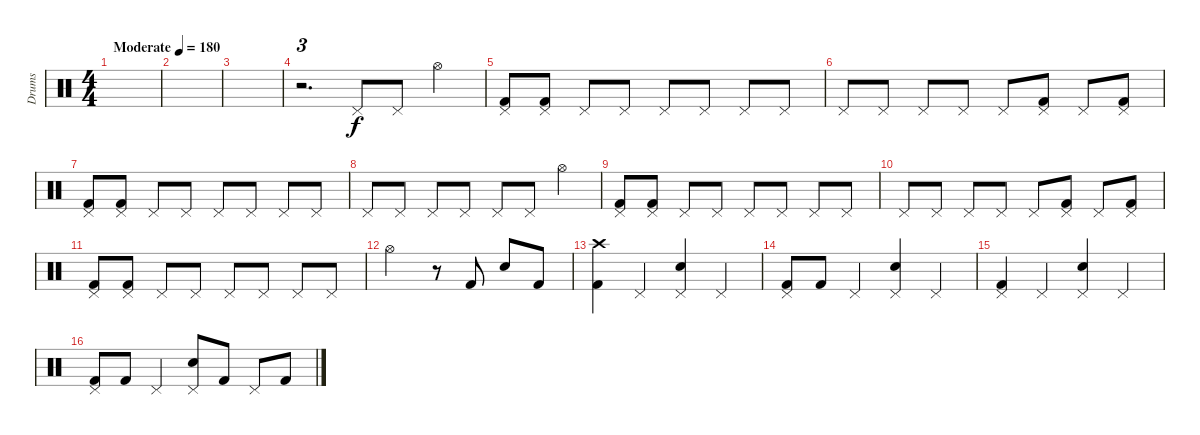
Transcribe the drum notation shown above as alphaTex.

\track ("Drums" "Drums") {instrument percussion}
\staff {score}
\articulation defaults
\ts (4 4)
\tempo (180 "Moderate")
\clef neutral
\ks c
|
|
|
r.2{d tu (3 2)} "Pedal Hi-Hat (hit)".8 "Pedal Hi-Hat (hit)".8 "Hi-Hat (open)".4 |
("Pedal Hi-Hat (hit)" "Kick (hit) 2").8 ("Pedal Hi-Hat (hit)" "Kick (hit) 2").8 "Pedal Hi-Hat (hit)".8 "Pedal Hi-Hat (hit)".8 "Pedal Hi-Hat (hit)".8 "Pedal Hi-Hat (hit)".8 "Pedal Hi-Hat (hit)".8 "Pedal Hi-Hat (hit)".8 |
"Pedal Hi-Hat (hit)".8 "Pedal Hi-Hat (hit)".8 "Pedal Hi-Hat (hit)".8 "Pedal Hi-Hat (hit)".8 "Pedal Hi-Hat (hit)".8 ("Pedal Hi-Hat (hit)" "Kick (hit) 2").8 "Pedal Hi-Hat (hit)".8 ("Pedal Hi-Hat (hit)" "Kick (hit) 2").8 |
("Pedal Hi-Hat (hit)" "Kick (hit) 2").8 ("Pedal Hi-Hat (hit)" "Kick (hit) 2").8 "Pedal Hi-Hat (hit)".8 "Pedal Hi-Hat (hit)".8 "Pedal Hi-Hat (hit)".8 "Pedal Hi-Hat (hit)".8 "Pedal Hi-Hat (hit)".8 "Pedal Hi-Hat (hit)".8 |
"Pedal Hi-Hat (hit)".8 "Pedal Hi-Hat (hit)".8 "Pedal Hi-Hat (hit)".8 "Pedal Hi-Hat (hit)".8 "Pedal Hi-Hat (hit)".8 "Pedal Hi-Hat (hit)".8 "Hi-Hat (open)".4 |
("Pedal Hi-Hat (hit)" "Kick (hit) 2").8 ("Pedal Hi-Hat (hit)" "Kick (hit) 2").8 "Pedal Hi-Hat (hit)".8 "Pedal Hi-Hat (hit)".8 "Pedal Hi-Hat (hit)".8 "Pedal Hi-Hat (hit)".8 "Pedal Hi-Hat (hit)".8 "Pedal Hi-Hat (hit)".8 |
"Pedal Hi-Hat (hit)".8 "Pedal Hi-Hat (hit)".8 "Pedal Hi-Hat (hit)".8 "Pedal Hi-Hat (hit)".8 "Pedal Hi-Hat (hit)".8 ("Pedal Hi-Hat (hit)" "Kick (hit) 2").8 "Pedal Hi-Hat (hit)".8 ("Pedal Hi-Hat (hit)" "Kick (hit) 2").8 |
("Pedal Hi-Hat (hit)" "Kick (hit) 2").8 ("Pedal Hi-Hat (hit)" "Kick (hit) 2").8 "Pedal Hi-Hat (hit)".8 "Pedal Hi-Hat (hit)".8 "Pedal Hi-Hat (hit)".8 "Pedal Hi-Hat (hit)".8 "Pedal Hi-Hat (hit)".8 "Pedal Hi-Hat (hit)".8 |
"Hi-Hat (open)".2 r.8 "Kick (hit) 2".8 "Electric Snare (hit)".8 "Kick (hit) 2".8 |
("Crash high (hit)" "Kick (hit) 2").4 "Pedal Hi-Hat (hit)".4 ("Pedal Hi-Hat (hit)" "Electric Snare (hit)").4 "Pedal Hi-Hat (hit)".4 |
("Pedal Hi-Hat (hit)" "Kick (hit) 2").8 "Kick (hit) 2".8 "Pedal Hi-Hat (hit)".4 ("Pedal Hi-Hat (hit)" "Electric Snare (hit)").4 "Pedal Hi-Hat (hit)".4 |
("Pedal Hi-Hat (hit)" "Kick (hit) 2").4 "Pedal Hi-Hat (hit)".4 ("Pedal Hi-Hat (hit)" "Electric Snare (hit)").4 "Pedal Hi-Hat (hit)".4 |
("Pedal Hi-Hat (hit)" "Kick (hit) 2").8 "Kick (hit) 2".8 "Pedal Hi-Hat (hit)".4 ("Pedal Hi-Hat (hit)" "Electric Snare (hit)").8 "Kick (hit) 2".8 "Pedal Hi-Hat (hit)".8 "Kick (hit) 2".8
